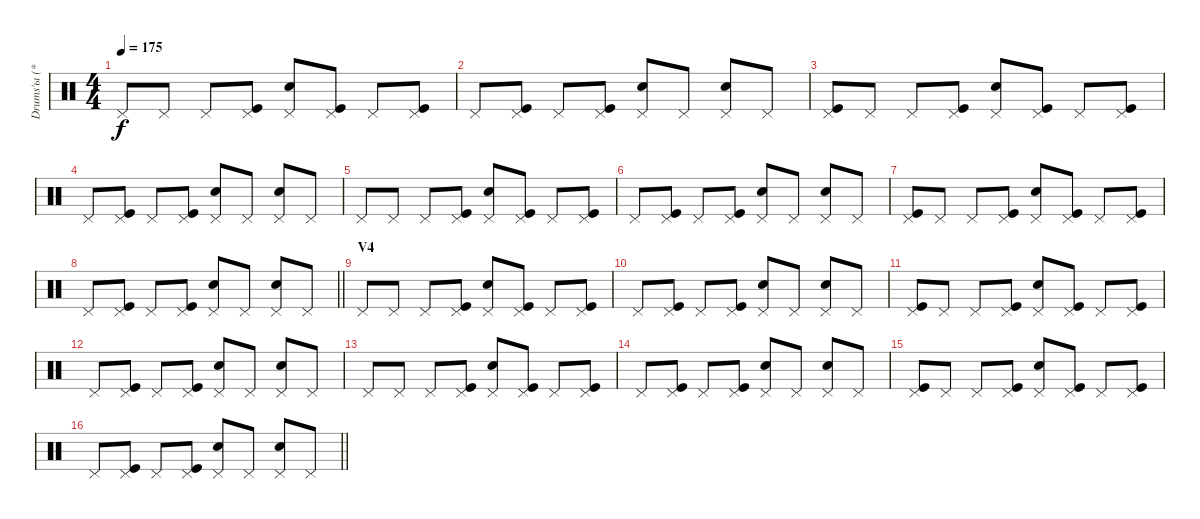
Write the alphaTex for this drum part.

\track ("Drums'ы (***)" "Drums'ы (*") {instrument percussion}
\staff {score}
\articulation defaults
\ts (4 4)
\tempo 175
\clef neutral
\ks c "Pedal Hi-Hat (hit)".8{dy f} "Pedal Hi-Hat (hit)".8 "Pedal Hi-Hat (hit)".8
("Pedal Hi-Hat (hit)" "Kick (hit)").8 ("Pedal Hi-Hat (hit)" "Electric Snare (hit)").8 ("Pedal Hi-Hat (hit)" "Kick (hit)").8 "Pedal Hi-Hat (hit)".8 ("Pedal Hi-Hat (hit)" "Kick (hit)").8 |
"Pedal Hi-Hat (hit)".8 ("Pedal Hi-Hat (hit)" "Kick (hit)").8 "Pedal Hi-Hat (hit)".8 ("Pedal Hi-Hat (hit)" "Kick (hit)").8 ("Pedal Hi-Hat (hit)" "Electric Snare (hit)").8 "Pedal Hi-Hat (hit)".8 ("Pedal Hi-Hat (hit)" "Electric Snare (hit)").8 "Pedal Hi-Hat (hit)".8 |
("Pedal Hi-Hat (hit)" "Kick (hit)").8 "Pedal Hi-Hat (hit)".8 "Pedal Hi-Hat (hit)".8 ("Pedal Hi-Hat (hit)" "Kick (hit)").8 ("Pedal Hi-Hat (hit)" "Electric Snare (hit)").8 ("Pedal Hi-Hat (hit)" "Kick (hit)").8 "Pedal Hi-Hat (hit)".8 ("Pedal Hi-Hat (hit)" "Kick (hit)").8 |
"Pedal Hi-Hat (hit)".8 ("Pedal Hi-Hat (hit)" "Kick (hit)").8 "Pedal Hi-Hat (hit)".8 ("Pedal Hi-Hat (hit)" "Kick (hit)").8 ("Pedal Hi-Hat (hit)" "Electric Snare (hit)").8 "Pedal Hi-Hat (hit)".8 ("Pedal Hi-Hat (hit)" "Electric Snare (hit)").8 "Pedal Hi-Hat (hit)".8 |
"Pedal Hi-Hat (hit)".8 "Pedal Hi-Hat (hit)".8 "Pedal Hi-Hat (hit)".8 ("Pedal Hi-Hat (hit)" "Kick (hit)").8 ("Pedal Hi-Hat (hit)" "Electric Snare (hit)").8 ("Pedal Hi-Hat (hit)" "Kick (hit)").8 "Pedal Hi-Hat (hit)".8 ("Pedal Hi-Hat (hit)" "Kick (hit)").8 |
"Pedal Hi-Hat (hit)".8 ("Pedal Hi-Hat (hit)" "Kick (hit)").8 "Pedal Hi-Hat (hit)".8 ("Pedal Hi-Hat (hit)" "Kick (hit)").8 ("Pedal Hi-Hat (hit)" "Electric Snare (hit)").8 "Pedal Hi-Hat (hit)".8 ("Pedal Hi-Hat (hit)" "Electric Snare (hit)").8 "Pedal Hi-Hat (hit)".8 |
("Pedal Hi-Hat (hit)" "Kick (hit)").8 "Pedal Hi-Hat (hit)".8 "Pedal Hi-Hat (hit)".8 ("Pedal Hi-Hat (hit)" "Kick (hit)").8 ("Pedal Hi-Hat (hit)" "Electric Snare (hit)").8 ("Pedal Hi-Hat (hit)" "Kick (hit)").8 "Pedal Hi-Hat (hit)".8 ("Pedal Hi-Hat (hit)" "Kick (hit)").8 |
\barLineRight lightlight "Pedal Hi-Hat (hit)".8
("Pedal Hi-Hat (hit)" "Kick (hit)").8 "Pedal Hi-Hat (hit)".8 ("Pedal Hi-Hat (hit)" "Kick (hit)").8 ("Pedal Hi-Hat (hit)" "Electric Snare (hit)").8 "Pedal Hi-Hat (hit)".8 ("Pedal Hi-Hat (hit)" "Electric Snare (hit)").8 "Pedal Hi-Hat (hit)".8 |
\section ("" "V4")
"Pedal Hi-Hat (hit)".8 "Pedal Hi-Hat (hit)".8 "Pedal Hi-Hat (hit)".8 ("Pedal Hi-Hat (hit)" "Kick (hit)").8 ("Pedal Hi-Hat (hit)" "Electric Snare (hit)").8 ("Pedal Hi-Hat (hit)" "Kick (hit)").8 "Pedal Hi-Hat (hit)".8 ("Pedal Hi-Hat (hit)" "Kick (hit)").8 |
"Pedal Hi-Hat (hit)".8 ("Pedal Hi-Hat (hit)" "Kick (hit)").8 "Pedal Hi-Hat (hit)".8 ("Pedal Hi-Hat (hit)" "Kick (hit)").8 ("Pedal Hi-Hat (hit)" "Electric Snare (hit)").8 "Pedal Hi-Hat (hit)".8 ("Pedal Hi-Hat (hit)" "Electric Snare (hit)").8 "Pedal Hi-Hat (hit)".8 |
("Pedal Hi-Hat (hit)" "Kick (hit)").8 "Pedal Hi-Hat (hit)".8 "Pedal Hi-Hat (hit)".8 ("Pedal Hi-Hat (hit)" "Kick (hit)").8 ("Pedal Hi-Hat (hit)" "Electric Snare (hit)").8 ("Pedal Hi-Hat (hit)" "Kick (hit)").8 "Pedal Hi-Hat (hit)".8 ("Pedal Hi-Hat (hit)" "Kick (hit)").8 |
"Pedal Hi-Hat (hit)".8 ("Pedal Hi-Hat (hit)" "Kick (hit)").8 "Pedal Hi-Hat (hit)".8 ("Pedal Hi-Hat (hit)" "Kick (hit)").8 ("Pedal Hi-Hat (hit)" "Electric Snare (hit)").8 "Pedal Hi-Hat (hit)".8 ("Pedal Hi-Hat (hit)" "Electric Snare (hit)").8 "Pedal Hi-Hat (hit)".8 |
"Pedal Hi-Hat (hit)".8 "Pedal Hi-Hat (hit)".8 "Pedal Hi-Hat (hit)".8 ("Pedal Hi-Hat (hit)" "Kick (hit)").8 ("Pedal Hi-Hat (hit)" "Electric Snare (hit)").8 ("Pedal Hi-Hat (hit)" "Kick (hit)").8 "Pedal Hi-Hat (hit)".8 ("Pedal Hi-Hat (hit)" "Kick (hit)").8 |
"Pedal Hi-Hat (hit)".8 ("Pedal Hi-Hat (hit)" "Kick (hit)").8 "Pedal Hi-Hat (hit)".8 ("Pedal Hi-Hat (hit)" "Kick (hit)").8 ("Pedal Hi-Hat (hit)" "Electric Snare (hit)").8 "Pedal Hi-Hat (hit)".8 ("Pedal Hi-Hat (hit)" "Electric Snare (hit)").8 "Pedal Hi-Hat (hit)".8 |
("Pedal Hi-Hat (hit)" "Kick (hit)").8 "Pedal Hi-Hat (hit)".8 "Pedal Hi-Hat (hit)".8 ("Pedal Hi-Hat (hit)" "Kick (hit)").8 ("Pedal Hi-Hat (hit)" "Electric Snare (hit)").8 ("Pedal Hi-Hat (hit)" "Kick (hit)").8 "Pedal Hi-Hat (hit)".8 ("Pedal Hi-Hat (hit)" "Kick (hit)").8 |
\barLineRight lightlight "Pedal Hi-Hat (hit)".8
("Pedal Hi-Hat (hit)" "Kick (hit)").8 "Pedal Hi-Hat (hit)".8 ("Pedal Hi-Hat (hit)" "Kick (hit)").8 ("Pedal Hi-Hat (hit)" "Electric Snare (hit)").8 "Pedal Hi-Hat (hit)".8 ("Pedal Hi-Hat (hit)" "Electric Snare (hit)").8 "Pedal Hi-Hat (hit)".8
